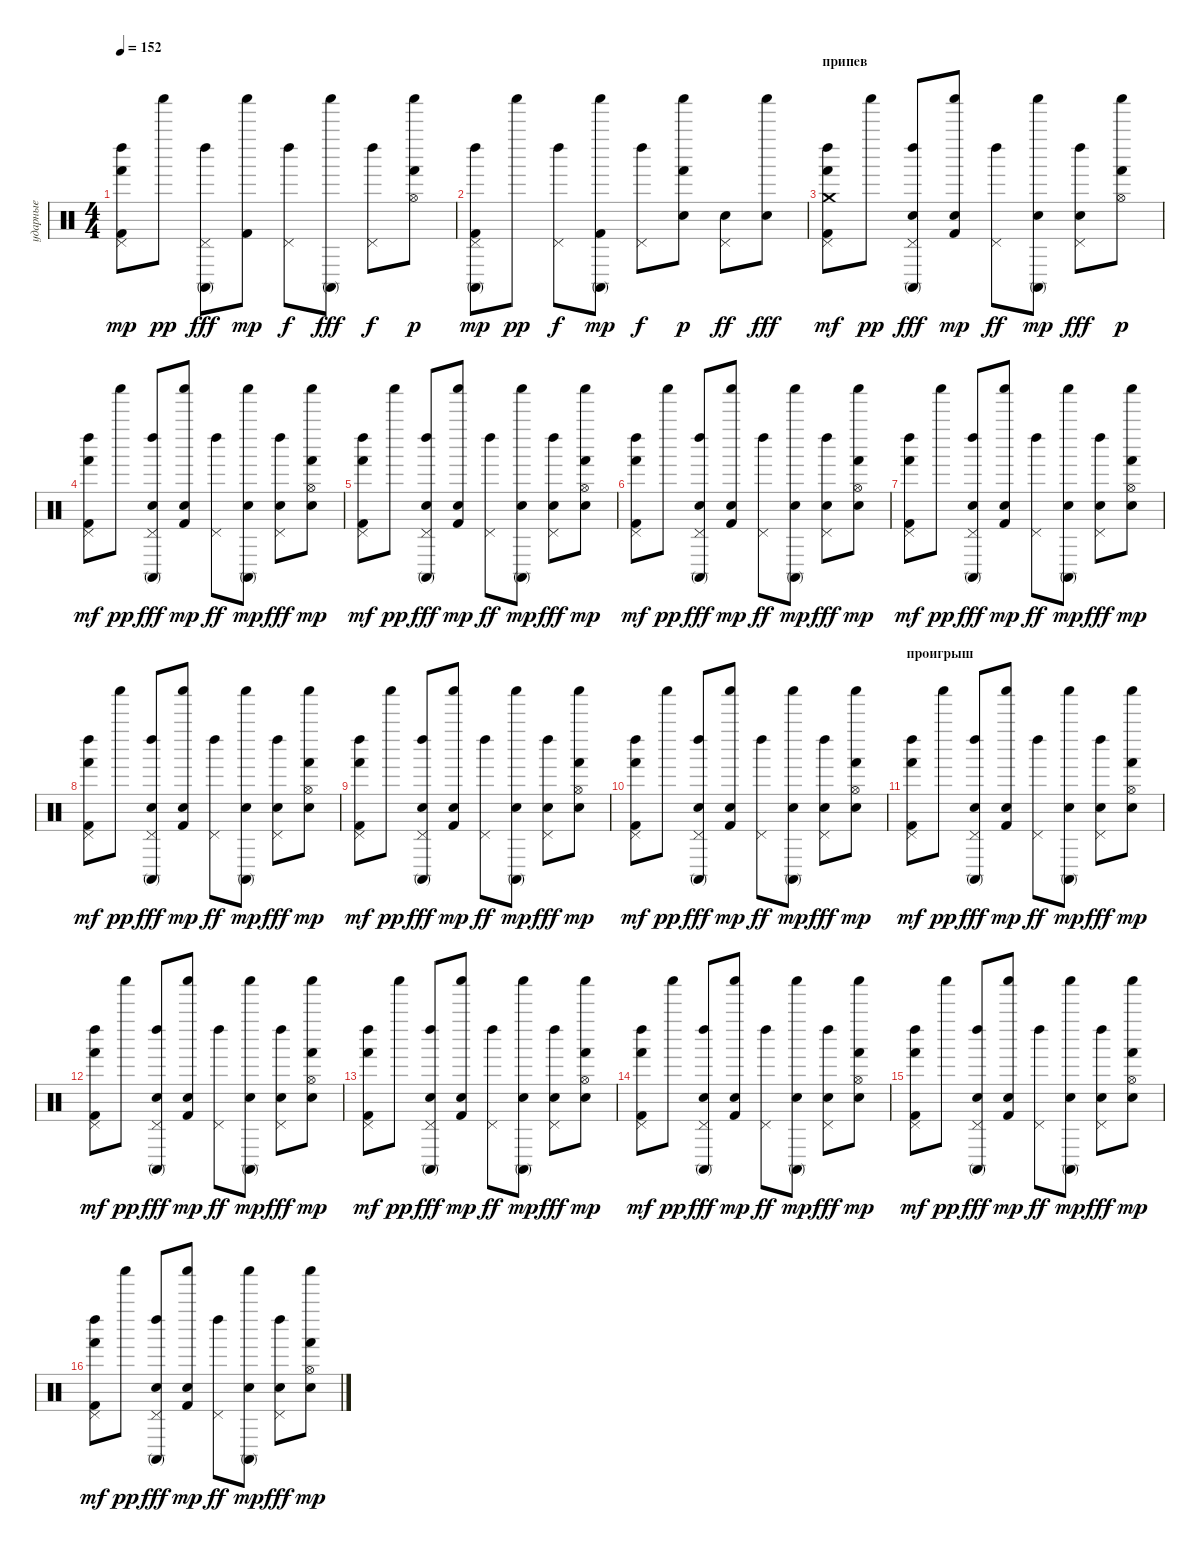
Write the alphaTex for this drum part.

\track ("ударные" "ударные") {instrument percussion}
\staff {score}
\articulation defaults
\ts (4 4)
\tempo 152
\clef neutral
\ks c
("Pedal Hi-Hat (hit)" "Left Maraca (hit)" "Hand (hit)" "Kick (hit) 2").8{dy mp} "Shaker (hit)".8{dy pp} ("Pedal Hi-Hat (hit)" "Left Maraca (hit)" "Conga high (mute)").8{dy fff} ("Shaker (hit)" "Kick (hit) 2").8{dy mp} ("Pedal Hi-Hat (hit)" "Left Maraca (hit)").8{dy f} ("Shaker (hit)" "Conga high (mute)").8{dy fff} ("Pedal Hi-Hat (hit)" "Left Maraca (hit)").8{dy f} ("Shaker (hit)" "Hi-Hat (open)" "Hand (hit)").8{dy p} |
("Pedal Hi-Hat (hit)" "Left Maraca (hit)" "Conga high (mute)" "Kick (hit) 2").8{dy mp} "Shaker (hit)".8{dy pp} ("Pedal Hi-Hat (hit)" "Left Maraca (hit)").8{dy f} ("Shaker (hit)" "Conga high (mute)" "Kick (hit) 2").8{dy mp} ("Pedal Hi-Hat (hit)" "Left Maraca (hit)").8{dy f} ("Shaker (hit)" "Hand (hit)" "Snare (hit) 2").8{dy p} ("Pedal Hi-Hat (hit)" "Snare (hit) 2").8{dy ff} ("Shaker (hit)" "Snare (hit) 2").8{dy fff} |
\section ("" "припев")
("Pedal Hi-Hat (hit)" "Left Maraca (hit)" "Hand (hit)" "Kick (hit) 2" "Crash medium (hit)").8{dy mf} "Shaker (hit)".8{dy pp} ("Pedal Hi-Hat (hit)" "Left Maraca (hit)" "Conga high (mute)" "Snare (hit) 2").8{dy fff} ("Shaker (hit)" "Kick (hit) 2" "Electric Snare (hit)").8{dy mp} ("Pedal Hi-Hat (hit)" "Left Maraca (hit)").8{dy ff} ("Shaker (hit)" "Conga high (mute)" "Electric Snare (hit)").8{dy mp} ("Pedal Hi-Hat (hit)" "Left Maraca (hit)" "Snare (hit) 2").8{dy fff} ("Shaker (hit)" "Hi-Hat (open)" "Hand (hit)").8{dy p} |
("Pedal Hi-Hat (hit)" "Left Maraca (hit)" "Hand (hit)" "Kick (hit) 2").8{dy mf} "Shaker (hit)".8{dy pp} ("Pedal Hi-Hat (hit)" "Left Maraca (hit)" "Conga high (mute)" "Snare (hit) 2").8{dy fff} ("Shaker (hit)" "Kick (hit) 2" "Electric Snare (hit)").8{dy mp} ("Pedal Hi-Hat (hit)" "Left Maraca (hit)").8{dy ff} ("Shaker (hit)" "Conga high (mute)" "Electric Snare (hit)").8{dy mp} ("Pedal Hi-Hat (hit)" "Left Maraca (hit)" "Snare (hit) 2").8{dy fff} ("Shaker (hit)" "Hi-Hat (open)" "Hand (hit)" "Electric Snare (hit)").8{dy mp} |
("Pedal Hi-Hat (hit)" "Left Maraca (hit)" "Hand (hit)" "Kick (hit) 2").8{dy mf} "Shaker (hit)".8{dy pp} ("Pedal Hi-Hat (hit)" "Left Maraca (hit)" "Conga high (mute)" "Snare (hit) 2").8{dy fff} ("Shaker (hit)" "Kick (hit) 2" "Electric Snare (hit)").8{dy mp} ("Pedal Hi-Hat (hit)" "Left Maraca (hit)").8{dy ff} ("Shaker (hit)" "Conga high (mute)" "Electric Snare (hit)").8{dy mp} ("Pedal Hi-Hat (hit)" "Left Maraca (hit)" "Snare (hit) 2").8{dy fff} ("Shaker (hit)" "Hi-Hat (open)" "Hand (hit)" "Electric Snare (hit)").8{dy mp} |
("Pedal Hi-Hat (hit)" "Left Maraca (hit)" "Hand (hit)" "Kick (hit) 2").8{dy mf} "Shaker (hit)".8{dy pp} ("Pedal Hi-Hat (hit)" "Left Maraca (hit)" "Conga high (mute)" "Snare (hit) 2").8{dy fff} ("Shaker (hit)" "Kick (hit) 2" "Electric Snare (hit)").8{dy mp} ("Pedal Hi-Hat (hit)" "Left Maraca (hit)").8{dy ff} ("Shaker (hit)" "Conga high (mute)" "Electric Snare (hit)").8{dy mp} ("Pedal Hi-Hat (hit)" "Left Maraca (hit)" "Snare (hit) 2").8{dy fff} ("Shaker (hit)" "Hi-Hat (open)" "Hand (hit)" "Electric Snare (hit)").8{dy mp} |
("Pedal Hi-Hat (hit)" "Left Maraca (hit)" "Hand (hit)" "Kick (hit) 2").8{dy mf} "Shaker (hit)".8{dy pp} ("Pedal Hi-Hat (hit)" "Left Maraca (hit)" "Conga high (mute)" "Snare (hit) 2").8{dy fff} ("Shaker (hit)" "Kick (hit) 2" "Electric Snare (hit)").8{dy mp} ("Pedal Hi-Hat (hit)" "Left Maraca (hit)").8{dy ff} ("Shaker (hit)" "Conga high (mute)" "Electric Snare (hit)").8{dy mp} ("Pedal Hi-Hat (hit)" "Left Maraca (hit)" "Snare (hit) 2").8{dy fff} ("Shaker (hit)" "Hi-Hat (open)" "Hand (hit)" "Electric Snare (hit)").8{dy mp} |
("Pedal Hi-Hat (hit)" "Left Maraca (hit)" "Hand (hit)" "Kick (hit) 2").8{dy mf} "Shaker (hit)".8{dy pp} ("Pedal Hi-Hat (hit)" "Left Maraca (hit)" "Conga high (mute)" "Snare (hit) 2").8{dy fff} ("Shaker (hit)" "Kick (hit) 2" "Electric Snare (hit)").8{dy mp} ("Pedal Hi-Hat (hit)" "Left Maraca (hit)").8{dy ff} ("Shaker (hit)" "Conga high (mute)" "Electric Snare (hit)").8{dy mp} ("Pedal Hi-Hat (hit)" "Left Maraca (hit)" "Snare (hit) 2").8{dy fff} ("Shaker (hit)" "Hi-Hat (open)" "Hand (hit)" "Electric Snare (hit)").8{dy mp} |
("Pedal Hi-Hat (hit)" "Left Maraca (hit)" "Hand (hit)" "Kick (hit) 2").8{dy mf} "Shaker (hit)".8{dy pp} ("Pedal Hi-Hat (hit)" "Left Maraca (hit)" "Conga high (mute)" "Snare (hit) 2").8{dy fff} ("Shaker (hit)" "Kick (hit) 2" "Electric Snare (hit)").8{dy mp} ("Pedal Hi-Hat (hit)" "Left Maraca (hit)").8{dy ff} ("Shaker (hit)" "Conga high (mute)" "Electric Snare (hit)").8{dy mp} ("Pedal Hi-Hat (hit)" "Left Maraca (hit)" "Snare (hit) 2").8{dy fff} ("Shaker (hit)" "Hi-Hat (open)" "Hand (hit)" "Electric Snare (hit)").8{dy mp} |
("Pedal Hi-Hat (hit)" "Left Maraca (hit)" "Hand (hit)" "Kick (hit) 2").8{dy mf} "Shaker (hit)".8{dy pp} ("Pedal Hi-Hat (hit)" "Left Maraca (hit)" "Conga high (mute)" "Snare (hit) 2").8{dy fff} ("Shaker (hit)" "Kick (hit) 2" "Electric Snare (hit)").8{dy mp} ("Pedal Hi-Hat (hit)" "Left Maraca (hit)").8{dy ff} ("Shaker (hit)" "Conga high (mute)" "Electric Snare (hit)").8{dy mp} ("Pedal Hi-Hat (hit)" "Left Maraca (hit)" "Snare (hit) 2").8{dy fff} ("Shaker (hit)" "Hi-Hat (open)" "Hand (hit)" "Electric Snare (hit)").8{dy mp} |
\section ("" "проигрыш")
("Pedal Hi-Hat (hit)" "Left Maraca (hit)" "Hand (hit)" "Kick (hit) 2").8{dy mf} "Shaker (hit)".8{dy pp} ("Pedal Hi-Hat (hit)" "Left Maraca (hit)" "Conga high (mute)" "Snare (hit) 2").8{dy fff} ("Shaker (hit)" "Kick (hit) 2" "Electric Snare (hit)").8{dy mp} ("Pedal Hi-Hat (hit)" "Left Maraca (hit)").8{dy ff} ("Shaker (hit)" "Conga high (mute)" "Electric Snare (hit)").8{dy mp} ("Pedal Hi-Hat (hit)" "Left Maraca (hit)" "Snare (hit) 2").8{dy fff} ("Shaker (hit)" "Hi-Hat (open)" "Hand (hit)" "Electric Snare (hit)").8{dy mp} |
("Pedal Hi-Hat (hit)" "Left Maraca (hit)" "Hand (hit)" "Kick (hit) 2").8{dy mf} "Shaker (hit)".8{dy pp} ("Pedal Hi-Hat (hit)" "Left Maraca (hit)" "Conga high (mute)" "Snare (hit) 2").8{dy fff} ("Shaker (hit)" "Kick (hit) 2" "Electric Snare (hit)").8{dy mp} ("Pedal Hi-Hat (hit)" "Left Maraca (hit)").8{dy ff} ("Shaker (hit)" "Conga high (mute)" "Electric Snare (hit)").8{dy mp} ("Pedal Hi-Hat (hit)" "Left Maraca (hit)" "Snare (hit) 2").8{dy fff} ("Shaker (hit)" "Hi-Hat (open)" "Hand (hit)" "Electric Snare (hit)").8{dy mp} |
("Pedal Hi-Hat (hit)" "Left Maraca (hit)" "Hand (hit)" "Kick (hit) 2").8{dy mf} "Shaker (hit)".8{dy pp} ("Pedal Hi-Hat (hit)" "Left Maraca (hit)" "Conga high (mute)" "Snare (hit) 2").8{dy fff} ("Shaker (hit)" "Kick (hit) 2" "Electric Snare (hit)").8{dy mp} ("Pedal Hi-Hat (hit)" "Left Maraca (hit)").8{dy ff} ("Shaker (hit)" "Conga high (mute)" "Electric Snare (hit)").8{dy mp} ("Pedal Hi-Hat (hit)" "Left Maraca (hit)" "Snare (hit) 2").8{dy fff} ("Shaker (hit)" "Hi-Hat (open)" "Hand (hit)" "Electric Snare (hit)").8{dy mp} |
("Pedal Hi-Hat (hit)" "Left Maraca (hit)" "Hand (hit)" "Kick (hit) 2").8{dy mf} "Shaker (hit)".8{dy pp} ("Pedal Hi-Hat (hit)" "Left Maraca (hit)" "Conga high (mute)" "Snare (hit) 2").8{dy fff} ("Shaker (hit)" "Kick (hit) 2" "Electric Snare (hit)").8{dy mp} ("Pedal Hi-Hat (hit)" "Left Maraca (hit)").8{dy ff} ("Shaker (hit)" "Conga high (mute)" "Electric Snare (hit)").8{dy mp} ("Pedal Hi-Hat (hit)" "Left Maraca (hit)" "Snare (hit) 2").8{dy fff} ("Shaker (hit)" "Hi-Hat (open)" "Hand (hit)" "Electric Snare (hit)").8{dy mp} |
("Pedal Hi-Hat (hit)" "Left Maraca (hit)" "Hand (hit)" "Kick (hit) 2").8{dy mf} "Shaker (hit)".8{dy pp} ("Pedal Hi-Hat (hit)" "Left Maraca (hit)" "Conga high (mute)" "Snare (hit) 2").8{dy fff} ("Shaker (hit)" "Kick (hit) 2" "Electric Snare (hit)").8{dy mp} ("Pedal Hi-Hat (hit)" "Left Maraca (hit)").8{dy ff} ("Shaker (hit)" "Conga high (mute)" "Electric Snare (hit)").8{dy mp} ("Pedal Hi-Hat (hit)" "Left Maraca (hit)" "Snare (hit) 2").8{dy fff} ("Shaker (hit)" "Hi-Hat (open)" "Hand (hit)" "Electric Snare (hit)").8{dy mp} |
("Pedal Hi-Hat (hit)" "Left Maraca (hit)" "Hand (hit)" "Kick (hit) 2").8{dy mf} "Shaker (hit)".8{dy pp} ("Pedal Hi-Hat (hit)" "Left Maraca (hit)" "Conga high (mute)" "Snare (hit) 2").8{dy fff} ("Shaker (hit)" "Kick (hit) 2" "Electric Snare (hit)").8{dy mp} ("Pedal Hi-Hat (hit)" "Left Maraca (hit)").8{dy ff} ("Shaker (hit)" "Conga high (mute)" "Electric Snare (hit)").8{dy mp} ("Pedal Hi-Hat (hit)" "Left Maraca (hit)" "Snare (hit) 2").8{dy fff} ("Shaker (hit)" "Hi-Hat (open)" "Hand (hit)" "Electric Snare (hit)").8{dy mp}
